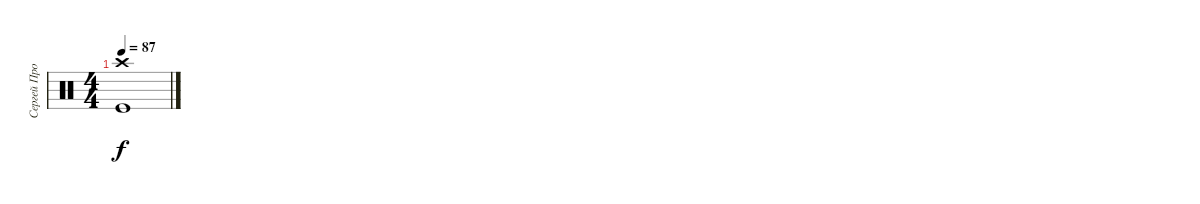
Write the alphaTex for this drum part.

\track ("Сергей Прокофьев" "Сергей Про") {instrument percussion}
\staff {score}
\articulation defaults
\ts (4 4)
\tempo 87
\clef neutral
\ks c
("Crash high (hit)" "Kick (hit)").1{dy f}
